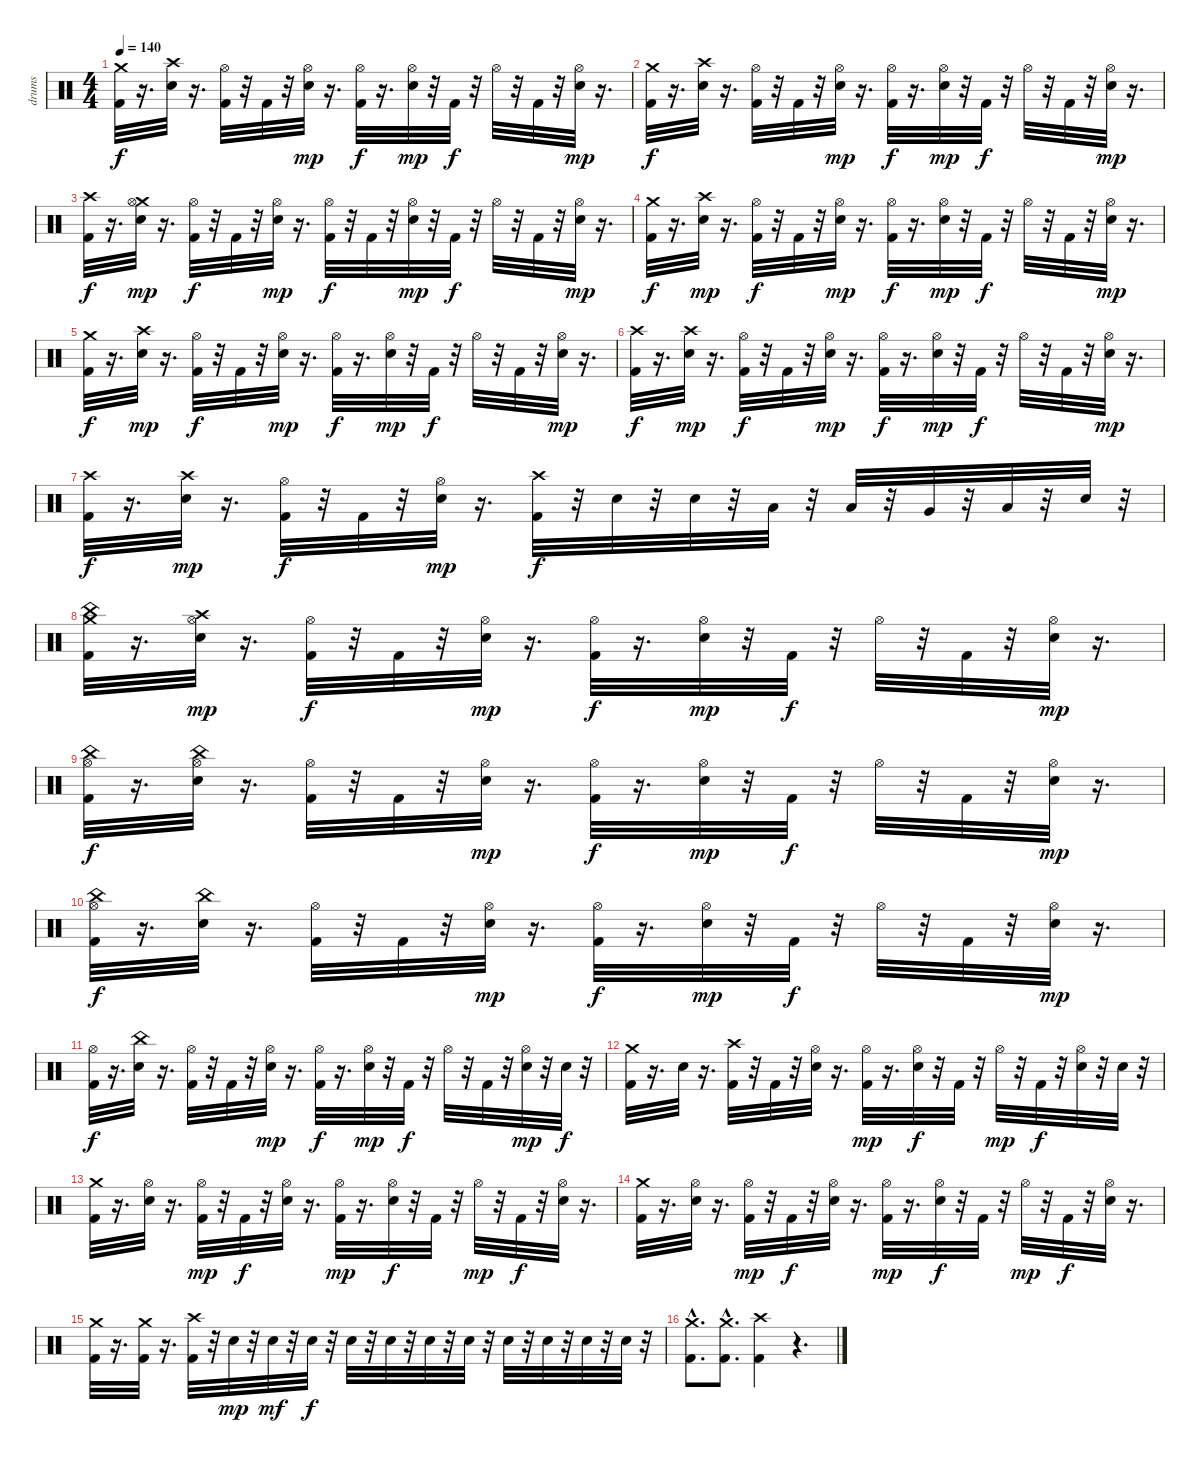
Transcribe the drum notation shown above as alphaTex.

\track ("drums" "drums") {instrument percussion}
\staff {score}
\articulation defaults
\ts (4 4)
\tempo 140
\clef neutral
\ks c
("Crash medium (hit)" "Kick (hit) 2").32{dy f} r.16{d} ("Crash high (hit)" "Electric Snare (hit)").32 r.16{d} ("Hi-Hat (open)" "Kick (hit) 2").32 r.32 "Kick (hit) 2".32 r.32 ("Hi-Hat (open)" "Electric Snare (hit)").32{dy mp} r.16{d} ("Hi-Hat (open)" "Kick (hit) 2").32{dy f} r.16{d} ("Hi-Hat (open)" "Electric Snare (hit)").32{dy mp} r.32 "Kick (hit) 2".32{dy f} r.32 "Hi-Hat (open)".32 r.32 "Kick (hit) 2".32 r.32 ("Hi-Hat (open)" "Electric Snare (hit)").32{dy mp} r.16{d} |
("Crash medium (hit)" "Kick (hit) 2").32{dy f} r.16{d} ("Electric Snare (hit)" "Crash high (hit)").32 r.16{d} ("Hi-Hat (open)" "Kick (hit) 2").32 r.32 "Kick (hit) 2".32 r.32 ("Hi-Hat (open)" "Electric Snare (hit)").32{dy mp} r.16{d} ("Hi-Hat (open)" "Kick (hit) 2").32{dy f} r.16{d} ("Hi-Hat (open)" "Electric Snare (hit)").32{dy mp} r.32 "Kick (hit) 2".32{dy f} r.32 "Hi-Hat (open)".32 r.32 "Kick (hit) 2".32 r.32 ("Hi-Hat (open)" "Electric Snare (hit)").32{dy mp} r.16{d} |
("Crash high (hit)" "Kick (hit) 2").32{dy f} r.16{d} ("Crash medium (hit)" "Hi-Hat (open)" "Electric Snare (hit)").32{dy mp} r.16{d} ("Hi-Hat (open)" "Kick (hit) 2").32{dy f} r.32 "Kick (hit) 2".32 r.32 ("Hi-Hat (open)" "Electric Snare (hit)").32{dy mp} r.16{d} ("Hi-Hat (open)" "Kick (hit) 2").32{dy f} r.32 "Kick (hit) 2".32 r.32 ("Hi-Hat (open)" "Electric Snare (hit)").32{dy mp} r.32 "Kick (hit) 2".32{dy f} r.32 "Hi-Hat (open)".32 r.32 "Kick (hit) 2".32 r.32 ("Hi-Hat (open)" "Electric Snare (hit)").32{dy mp} r.16{d} |
("Crash medium (hit)" "Kick (hit) 2").32{dy f} r.16{d} ("Crash high (hit)" "Electric Snare (hit)").32{dy mp} r.16{d} ("Hi-Hat (open)" "Kick (hit) 2").32{dy f} r.32 "Kick (hit) 2".32 r.32 ("Hi-Hat (open)" "Electric Snare (hit)").32{dy mp} r.16{d} ("Hi-Hat (open)" "Kick (hit) 2").32{dy f} r.16{d} ("Hi-Hat (open)" "Electric Snare (hit)").32{dy mp} r.32 "Kick (hit) 2".32{dy f} r.32 "Hi-Hat (open)".32 r.32 "Kick (hit) 2".32 r.32 ("Hi-Hat (open)" "Electric Snare (hit)").32{dy mp} r.16{d} |
("Crash medium (hit)" "Kick (hit) 2").32{dy f} r.16{d} ("Crash high (hit)" "Electric Snare (hit)").32{dy mp} r.16{d} ("Hi-Hat (open)" "Kick (hit) 2").32{dy f} r.32 "Kick (hit) 2".32 r.32 ("Hi-Hat (open)" "Electric Snare (hit)").32{dy mp} r.16{d} ("Hi-Hat (open)" "Kick (hit) 2").32{dy f} r.16{d} ("Electric Snare (hit)" "Hi-Hat (open)").32{dy mp} r.32 "Kick (hit) 2".32{dy f} r.32 "Hi-Hat (open)".32 r.32 "Kick (hit) 2".32 r.32 ("Electric Snare (hit)" "Hi-Hat (open)").32{dy mp} r.16{d} |
("Crash high (hit)" "Kick (hit) 2").32{dy f} r.16{d} ("Crash high (hit)" "Electric Snare (hit)").32{dy mp} r.16{d} ("Hi-Hat (open)" "Kick (hit) 2").32{dy f} r.32 "Kick (hit) 2".32 r.32 ("Hi-Hat (open)" "Electric Snare (hit)").32{dy mp} r.16{d} ("Hi-Hat (open)" "Kick (hit) 2").32{dy f} r.16{d} ("Hi-Hat (open)" "Electric Snare (hit)").32{dy mp} r.32 "Kick (hit) 2".32{dy f} r.32 "Hi-Hat (open)".32 r.32 "Kick (hit) 2".32 r.32 ("Hi-Hat (open)" "Electric Snare (hit)").32{dy mp} r.16{d} |
("Crash high (hit)" "Kick (hit) 2").32{dy f} r.16{d} ("Crash high (hit)" "Electric Snare (hit)").32{dy mp} r.16{d} ("Hi-Hat (open)" "Kick (hit) 2").32{dy f} r.32 "Kick (hit) 2".32 r.32 ("Hi-Hat (open)" "Electric Snare (hit)").32{dy mp} r.16{d} ("Crash high (hit)" "Kick (hit) 2").32{dy f} r.32 "Electric Snare (hit)".32 r.32 "Electric Snare (hit)".32 r.32 "Low Tom (hit)".32 r.32 "Low Tom (hit)".32 r.32 "Very Low Tom (hit)".32 r.32 "Low Floor Tom (hit)".32 r.32 "Electric Snare (hit)".32 r.32 |
("Crash medium (hit)" "Kick (hit) 2" "China (hit)").32 r.16{d} ("Electric Snare (hit)" "Crash high (hit)" "Hi-Hat (open)").32{dy mp} r.16{d} ("Hi-Hat (open)" "Kick (hit) 2").32{dy f} r.32 "Kick (hit) 2".32 r.32 ("Hi-Hat (open)" "Electric Snare (hit)").32{dy mp} r.16{d} ("Hi-Hat (open)" "Kick (hit) 2").32{dy f} r.16{d} ("Hi-Hat (open)" "Electric Snare (hit)").32{dy mp} r.32 "Kick (hit) 2".32{dy f} r.32 "Hi-Hat (open)".32 r.32 "Kick (hit) 2".32 r.32 ("Hi-Hat (open)" "Electric Snare (hit)").32{dy mp} r.16{d} |
("China (hit)" "Hi-Hat (open)" "Kick (hit) 2").32{dy f} r.16{d} ("China (hit)" "Hi-Hat (open)" "Electric Snare (hit)").32 r.16{d} ("Hi-Hat (open)" "Kick (hit) 2").32 r.32 "Kick (hit) 2".32 r.32 ("Hi-Hat (open)" "Electric Snare (hit)").32{dy mp} r.16{d} ("Hi-Hat (open)" "Kick (hit) 2").32{dy f} r.16{d} ("Electric Snare (hit)" "Hi-Hat (open)").32{dy mp} r.32 "Kick (hit) 2".32{dy f} r.32 "Hi-Hat (open)".32 r.32 "Kick (hit) 2".32 r.32 ("Hi-Hat (open)" "Electric Snare (hit)").32{dy mp} r.16{d} |
("Kick (hit) 2" "Hi-Hat (open)" "China (hit)").32{dy f} r.16{d} ("Electric Snare (hit)" "China (hit)").32 r.16{d} ("Kick (hit) 2" "Hi-Hat (open)").32 r.32 "Kick (hit) 2".32 r.32 ("Hi-Hat (open)" "Electric Snare (hit)").32{dy mp} r.16{d} ("Kick (hit) 2" "Hi-Hat (open)").32{dy f} r.16{d} ("Hi-Hat (open)" "Electric Snare (hit)").32{dy mp} r.32 "Kick (hit) 2".32{dy f} r.32 "Hi-Hat (open)".32 r.32 "Kick (hit) 2".32 r.32 ("Hi-Hat (open)" "Electric Snare (hit)").32{dy mp} r.16{d} |
("Hi-Hat (open)" "Kick (hit) 2").32{dy f} r.16{d} ("China (hit)" "Electric Snare (hit)").32 r.16{d} ("Hi-Hat (open)" "Kick (hit) 2").32 r.32 "Kick (hit) 2".32 r.32 ("Hi-Hat (open)" "Electric Snare (hit)").32{dy mp} r.16{d} ("Hi-Hat (open)" "Kick (hit) 2").32{dy f} r.16{d} ("Electric Snare (hit)" "Hi-Hat (open)").32{dy mp} r.32 "Kick (hit) 2".32{dy f} r.32 "Hi-Hat (open)".32 r.32 "Kick (hit) 2".32 r.32 ("Hi-Hat (open)" "Electric Snare (hit)").32{dy mp} r.32 "Electric Snare (hit)".32{dy f} r.32 |
("Kick (hit) 2" "Crash medium (hit)").32 r.16{d} "Electric Snare (hit)".32 r.16{d} ("Kick (hit) 2" "Crash high (hit)").32 r.32 "Kick (hit) 2".32 r.32 ("Hi-Hat (open)" "Electric Snare (hit)").32 r.16{d} ("Hi-Hat (open)" "Kick (hit) 2").32{dy mp} r.16{d} ("Hi-Hat (open)" "Electric Snare (hit)").32{dy f} r.32 "Kick (hit) 2".32 r.32 "Hi-Hat (open)".32{dy mp} r.32 "Kick (hit) 2".32{dy f} r.32 ("Hi-Hat (open)" "Electric Snare (hit)").32 r.32 "Electric Snare (hit)".32 r.32 |
("Crash medium (hit)" "Kick (hit) 2").32 r.16{d} ("Hi-Hat (open)" "Electric Snare (hit)").32 r.16{d} ("Hi-Hat (open)" "Kick (hit) 2").32{dy mp} r.32 "Kick (hit) 2".32{dy f} r.32 ("Hi-Hat (open)" "Electric Snare (hit)").32 r.16{d} ("Hi-Hat (open)" "Kick (hit) 2").32{dy mp} r.16{d} ("Hi-Hat (open)" "Electric Snare (hit)").32{dy f} r.32 "Kick (hit) 2".32 r.32 "Hi-Hat (open)".32{dy mp} r.32 "Kick (hit) 2".32{dy f} r.32 ("Hi-Hat (open)" "Electric Snare (hit)").32 r.16{d} |
("Crash medium (hit)" "Kick (hit) 2").32 r.16{d} ("Hi-Hat (open)" "Electric Snare (hit)").32 r.16{d} ("Hi-Hat (open)" "Kick (hit) 2").32{dy mp} r.32 "Kick (hit) 2".32{dy f} r.32 ("Hi-Hat (open)" "Electric Snare (hit)").32 r.16{d} ("Hi-Hat (open)" "Kick (hit) 2").32{dy mp} r.16{d} ("Hi-Hat (open)" "Electric Snare (hit)").32{dy f} r.32 "Kick (hit) 2".32 r.32 "Hi-Hat (open)".32{dy mp} r.32 "Kick (hit) 2".32{dy f} r.32 ("Hi-Hat (open)" "Electric Snare (hit)").32 r.16{d} |
("Crash medium (hit)" "Kick (hit) 2").32 r.16{d} ("Kick (hit) 2" "Crash medium (hit)").32 r.16{d} ("Kick (hit) 2" "Crash high (hit)").32 r.32 "Electric Snare (hit)".32{dy mp} r.32 "Electric Snare (hit)".32{dy mf} r.32 "Electric Snare (hit)".32{dy f} r.32 "Electric Snare (hit)".32 r.32 "Electric Snare (hit)".32 r.32 "Electric Snare (hit)".32 r.32 "Electric Snare (hit)".32 r.32 "Electric Snare (hit)".32 r.32 "Electric Snare (hit)".32 r.32 "Electric Snare (hit)".32 r.32 "Electric Snare (hit)".32 r.32 |
("Crash medium (hit)"{hac} "Kick (hit) 2"{hac}).8{d} ("Kick (hit) 2"{hac} "Crash medium (hit)"{hac}).8{d} ("Kick (hit) 2" "Crash high (hit)").4 r.4{d}
